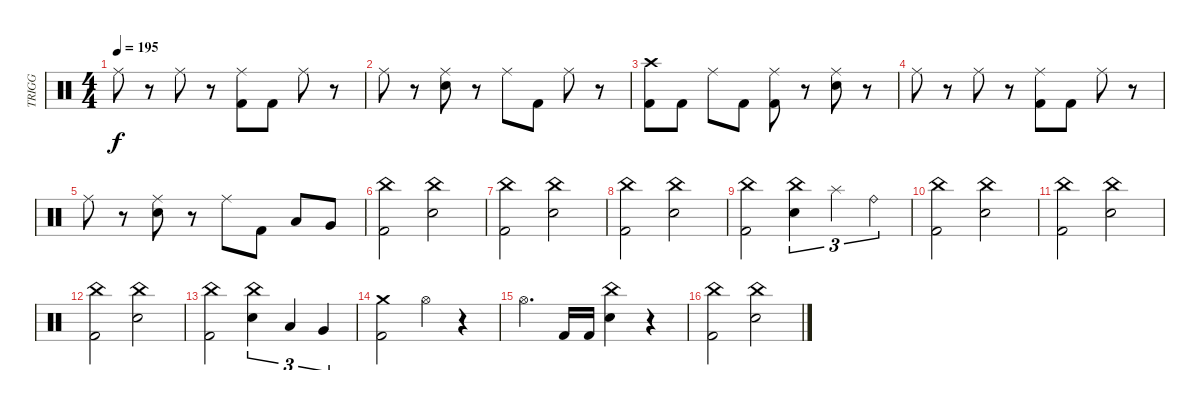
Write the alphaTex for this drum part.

\track ("TRIGG" "TRIGG") {instrument percussion}
\staff {score}
\articulation defaults
\ts (4 4)
\tempo 195
\clef neutral
\ks c "Ride (middle)".8{dy f}
r.8 "Ride (middle)".8 r.8 ("Ride (middle)" "Kick (hit) 2").8 "Kick (hit) 2".8 "Ride (middle)".8 r.8 |
"Ride (middle)".8 r.8 ("Ride (middle)" "Electric Snare (hit)").8 r.8 "Ride (middle)".8 "Kick (hit) 2".8 "Ride (middle)".8 r.8 |
("Crash high (hit)" "Kick (hit) 2").8 "Kick (hit) 2".8 "Ride (middle)".8 "Kick (hit) 2".8 ("Ride (middle)" "Kick (hit) 2").8 r.8 ("Ride (middle)" "Electric Snare (hit)").8 r.8 |
"Ride (middle)".8 r.8 "Ride (middle)".8 r.8 ("Ride (middle)" "Kick (hit) 2").8 "Kick (hit) 2".8 "Ride (middle)".8 r.8 |
"Ride (middle)".8 r.8 ("Ride (middle)" "Electric Snare (hit)").8 r.8 "Ride (middle)".8 "Kick (hit) 2".8 "Low Tom (hit)".8 "Very Low Tom (hit)".8 |
("China (hit)" "Kick (hit) 2").2 ("China (hit)" "Electric Snare (hit)").2 |
("China (hit)" "Kick (hit) 2").2 ("China (hit)" "Electric Snare (hit)").2 |
("China (hit)" "Kick (hit) 2").2 ("China (hit)" "Electric Snare (hit)").2 |
("China (hit)" "Kick (hit) 2").2 ("China (hit)" "Electric Snare (hit)").4{tu (3 2)} "Splash (hit)".4{tu (3 2)} "Ride (bell)".4{tu (3 2)} |
("China (hit)" "Kick (hit) 2").2 ("China (hit)" "Electric Snare (hit)").2 |
("China (hit)" "Kick (hit) 2").2 ("China (hit)" "Electric Snare (hit)").2 |
("China (hit)" "Kick (hit) 2").2 ("China (hit)" "Electric Snare (hit)").2 |
("China (hit)" "Kick (hit) 2").2 ("China (hit)" "Electric Snare (hit)").4{tu (3 2)} "Low Tom (hit)".4{tu (3 2)} "Very Low Tom (hit)".4{tu (3 2)} |
("Crash medium (hit)" "Kick (hit) 2").2 "Hi-Hat (open)".4 r.4 |
"Hi-Hat (open)".4{d} "Kick (hit) 2".16 "Kick (hit) 2".16 ("Electric Snare (hit)" "China (hit)").4 r.4 |
("China (hit)" "Kick (hit) 2").2 ("China (hit)" "Electric Snare (hit)").2
